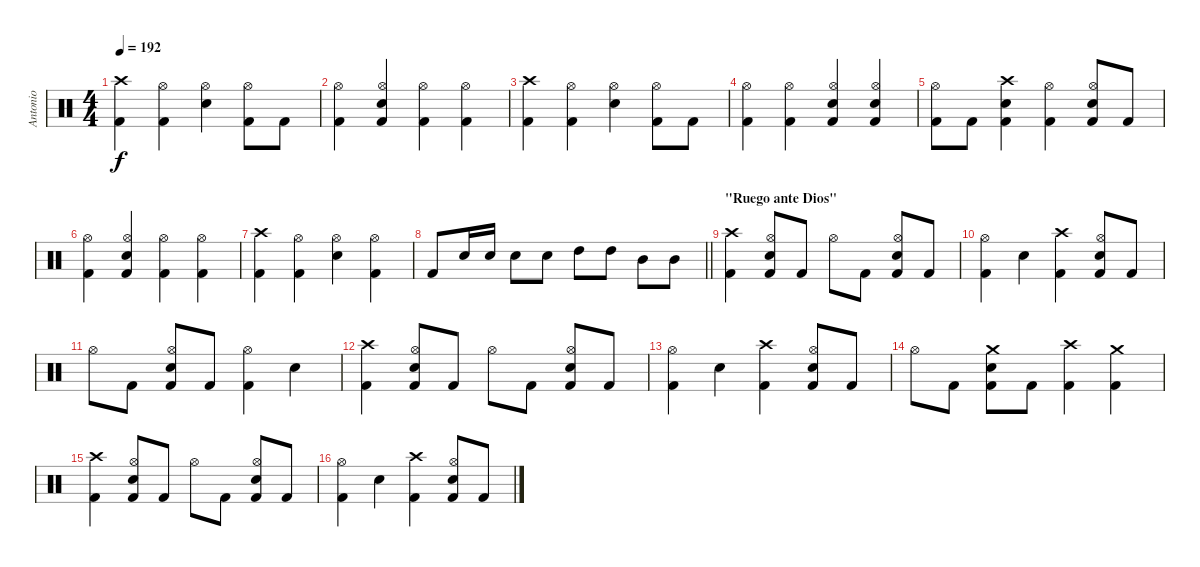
\track ("Antonio" "Antonio") {instrument percussion}
\staff {score}
\articulation defaults
\ts (4 4)
\tempo 192
\clef neutral
\ks c
("Crash high (hit)" "Kick (hit) 2").4{dy f} ("Hi-Hat (open)" "Kick (hit) 2").4 ("Hi-Hat (open)" "Electric Snare (hit)").4 ("Hi-Hat (open)" "Kick (hit) 2").8 "Kick (hit) 2".8 |
("Hi-Hat (open)" "Kick (hit) 2").4 ("Hi-Hat (open)" "Electric Snare (hit)" "Kick (hit) 2").4 ("Hi-Hat (open)" "Kick (hit) 2").4 ("Hi-Hat (open)" "Kick (hit) 2").4 |
("Crash high (hit)" "Kick (hit) 2").4 ("Hi-Hat (open)" "Kick (hit) 2").4 ("Hi-Hat (open)" "Electric Snare (hit)").4 ("Hi-Hat (open)" "Kick (hit) 2").8 "Kick (hit) 2".8 |
("Hi-Hat (open)" "Kick (hit) 2").4 ("Hi-Hat (open)" "Kick (hit) 2").4 ("Hi-Hat (open)" "Electric Snare (hit)" "Kick (hit) 2").4 ("Hi-Hat (open)" "Electric Snare (hit)" "Kick (hit) 2").4 |
("Hi-Hat (open)" "Kick (hit) 2").8 "Kick (hit) 2".8 ("Crash high (hit)" "Electric Snare (hit)" "Kick (hit) 2").4 ("Hi-Hat (open)" "Kick (hit) 2").4 ("Hi-Hat (open)" "Electric Snare (hit)" "Kick (hit) 2").8 "Kick (hit) 2".8 |
("Hi-Hat (open)" "Kick (hit) 2").4 ("Hi-Hat (open)" "Electric Snare (hit)" "Kick (hit) 2").4 ("Hi-Hat (open)" "Kick (hit) 2").4 ("Hi-Hat (open)" "Kick (hit) 2").4 |
("Crash high (hit)" "Kick (hit) 2").4 ("Hi-Hat (open)" "Kick (hit) 2").4 ("Hi-Hat (open)" "Electric Snare (hit)").4 ("Hi-Hat (open)" "Kick (hit) 2").4 |
\barLineRight lightlight "Kick (hit) 2".8 "Electric Snare (hit)".16 "Electric Snare (hit)".16 "Electric Snare (hit)".8 "Electric Snare (hit)".8 "High Tom (hit)".8 "High Tom (hit)".8 "Mid Tom (hit)".8 "Mid Tom (hit)".8
|
\section ("" "\"Ruego ante Dios\"")
("Crash high (hit)" "Kick (hit) 2").4 ("Hi-Hat (open)" "Electric Snare (hit)" "Kick (hit) 2").8 "Kick (hit) 2".8 "Hi-Hat (open)".8 "Kick (hit) 2".8 ("Hi-Hat (open)" "Electric Snare (hit)" "Kick (hit) 2").8 "Kick (hit) 2".8 |
("Hi-Hat (open)" "Kick (hit) 2").4 "Electric Snare (hit)".4 ("Crash high (hit)" "Kick (hit) 2").4 ("Hi-Hat (open)" "Electric Snare (hit)" "Kick (hit) 2").8 "Kick (hit) 2".8 |
"Hi-Hat (open)".8 "Kick (hit) 2".8 ("Hi-Hat (open)" "Electric Snare (hit)" "Kick (hit) 2").8 "Kick (hit) 2".8 ("Hi-Hat (open)" "Kick (hit) 2").4 "Electric Snare (hit)".4 |
("Crash high (hit)" "Kick (hit) 2").4 ("Hi-Hat (open)" "Electric Snare (hit)" "Kick (hit) 2").8 "Kick (hit) 2".8 "Hi-Hat (open)".8 "Kick (hit) 2".8 ("Hi-Hat (open)" "Electric Snare (hit)" "Kick (hit) 2").8 "Kick (hit) 2".8 |
("Hi-Hat (open)" "Kick (hit) 2").4 "Electric Snare (hit)".4 ("Crash high (hit)" "Kick (hit) 2").4 ("Hi-Hat (open)" "Electric Snare (hit)" "Kick (hit) 2").8 "Kick (hit) 2".8 |
"Hi-Hat (open)".8 "Kick (hit) 2".8 ("Crash medium (hit)" "Electric Snare (hit)" "Kick (hit) 2").8 "Kick (hit) 2".8 ("Crash high (hit)" "Kick (hit) 2").4 ("Crash medium (hit)" "Kick (hit) 2").4 |
("Crash high (hit)" "Kick (hit) 2").4 ("Hi-Hat (open)" "Electric Snare (hit)" "Kick (hit) 2").8 "Kick (hit) 2".8 "Hi-Hat (open)".8 "Kick (hit) 2".8 ("Hi-Hat (open)" "Electric Snare (hit)" "Kick (hit) 2").8 "Kick (hit) 2".8 |
("Hi-Hat (open)" "Kick (hit) 2").4 "Electric Snare (hit)".4 ("Crash high (hit)" "Kick (hit) 2").4 ("Hi-Hat (open)" "Electric Snare (hit)" "Kick (hit) 2").8 "Kick (hit) 2".8
